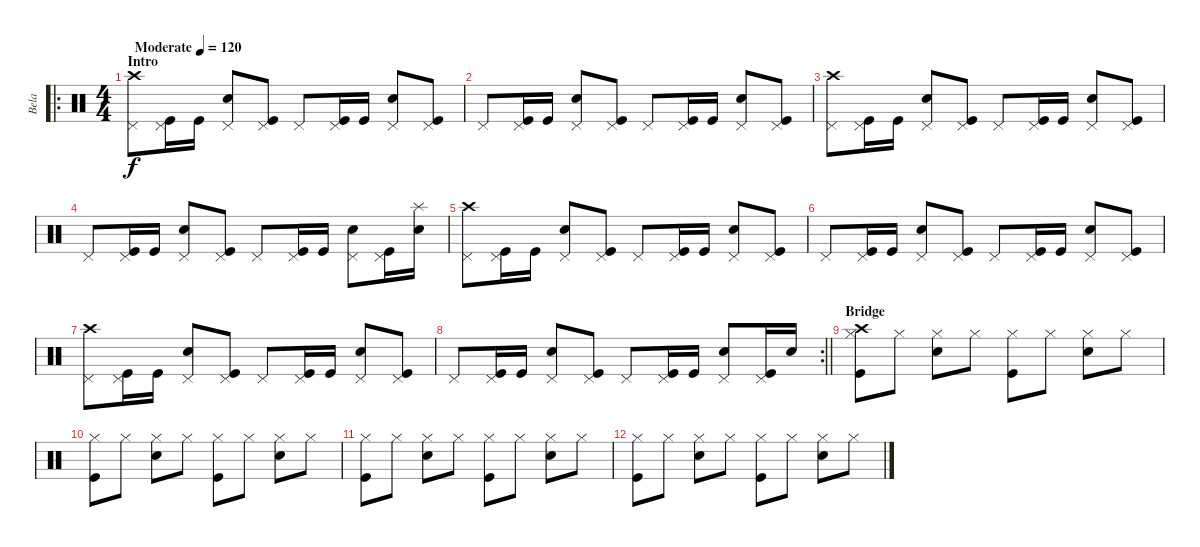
\track ("Bela" "Bela") {instrument percussion}
\staff {score}
\articulation defaults
\ro
\ts (4 4)
\section ("" "Intro")
\tempo (120 "Moderate")
\clef neutral
\ks c
("Crash high (hit)" "Pedal Hi-Hat (hit)").8{dy f} ("Pedal Hi-Hat (hit)" "Kick (hit)").16 "Kick (hit)".16 ("Pedal Hi-Hat (hit)" "Snare (hit) 2").8 ("Pedal Hi-Hat (hit)" "Kick (hit)").8 "Pedal Hi-Hat (hit)".8 ("Pedal Hi-Hat (hit)" "Kick (hit)").16 "Kick (hit)".16 ("Pedal Hi-Hat (hit)" "Snare (hit) 2").8 ("Pedal Hi-Hat (hit)" "Kick (hit)").8 |
"Pedal Hi-Hat (hit)".8 ("Pedal Hi-Hat (hit)" "Kick (hit)").16 "Kick (hit)".16 ("Pedal Hi-Hat (hit)" "Snare (hit) 2").8 ("Pedal Hi-Hat (hit)" "Kick (hit)").8 "Pedal Hi-Hat (hit)".8 ("Pedal Hi-Hat (hit)" "Kick (hit)").16 "Kick (hit)".16 ("Pedal Hi-Hat (hit)" "Snare (hit) 2").8 ("Pedal Hi-Hat (hit)" "Kick (hit)").8 |
("Crash high (hit)" "Pedal Hi-Hat (hit)").8 ("Pedal Hi-Hat (hit)" "Kick (hit)").16 "Kick (hit)".16 ("Pedal Hi-Hat (hit)" "Snare (hit) 2").8 ("Pedal Hi-Hat (hit)" "Kick (hit)").8 "Pedal Hi-Hat (hit)".8 ("Pedal Hi-Hat (hit)" "Kick (hit)").16 "Kick (hit)".16 ("Pedal Hi-Hat (hit)" "Snare (hit) 2").8 ("Pedal Hi-Hat (hit)" "Kick (hit)").8 |
"Pedal Hi-Hat (hit)".8 ("Pedal Hi-Hat (hit)" "Kick (hit)").16 "Kick (hit)".16 ("Pedal Hi-Hat (hit)" "Snare (hit) 2").8 ("Pedal Hi-Hat (hit)" "Kick (hit)").8 "Pedal Hi-Hat (hit)".8 ("Pedal Hi-Hat (hit)" "Kick (hit)").16 "Kick (hit)".16 ("Pedal Hi-Hat (hit)" "Snare (hit) 2").8 ("Pedal Hi-Hat (hit)" "Kick (hit)").16 ("Snare (hit) 2" "Splash (hit)").16 |
("Crash high (hit)" "Pedal Hi-Hat (hit)").8 ("Pedal Hi-Hat (hit)" "Kick (hit)").16 "Kick (hit)".16 ("Pedal Hi-Hat (hit)" "Snare (hit) 2").8 ("Pedal Hi-Hat (hit)" "Kick (hit)").8 "Pedal Hi-Hat (hit)".8 ("Pedal Hi-Hat (hit)" "Kick (hit)").16 "Kick (hit)".16 ("Pedal Hi-Hat (hit)" "Snare (hit) 2").8 ("Pedal Hi-Hat (hit)" "Kick (hit)").8 |
"Pedal Hi-Hat (hit)".8 ("Pedal Hi-Hat (hit)" "Kick (hit)").16 "Kick (hit)".16 ("Pedal Hi-Hat (hit)" "Snare (hit) 2").8 ("Pedal Hi-Hat (hit)" "Kick (hit)").8 "Pedal Hi-Hat (hit)".8 ("Pedal Hi-Hat (hit)" "Kick (hit)").16 "Kick (hit)".16 ("Pedal Hi-Hat (hit)" "Snare (hit) 2").8 ("Pedal Hi-Hat (hit)" "Kick (hit)").8 |
("Crash high (hit)" "Pedal Hi-Hat (hit)").8 ("Pedal Hi-Hat (hit)" "Kick (hit)").16 "Kick (hit)".16 ("Pedal Hi-Hat (hit)" "Snare (hit) 2").8 ("Pedal Hi-Hat (hit)" "Kick (hit)").8 "Pedal Hi-Hat (hit)".8 ("Pedal Hi-Hat (hit)" "Kick (hit)").16 "Kick (hit)".16 ("Pedal Hi-Hat (hit)" "Snare (hit) 2").8 ("Pedal Hi-Hat (hit)" "Kick (hit)").8 |
\rc 2
\barLineRight lightlight "Pedal Hi-Hat (hit)".8
("Pedal Hi-Hat (hit)" "Kick (hit)").16 "Kick (hit)".16 ("Pedal Hi-Hat (hit)" "Snare (hit) 2").8 ("Pedal Hi-Hat (hit)" "Kick (hit)").8 "Pedal Hi-Hat (hit)".8 ("Pedal Hi-Hat (hit)" "Kick (hit)").16 "Kick (hit)".16 ("Pedal Hi-Hat (hit)" "Snare (hit) 2").8 ("Pedal Hi-Hat (hit)" "Kick (hit)").16 "Snare (hit) 2".16 |
\section ("" "Bridge")
("Crash high (hit)" "Hi-Hat (closed)" "Kick (hit)").8 "Hi-Hat (closed)".8 ("Hi-Hat (closed)" "Snare (hit) 2").8 "Hi-Hat (closed)".8 ("Hi-Hat (closed)" "Kick (hit)").8 "Hi-Hat (closed)".8 ("Hi-Hat (closed)" "Snare (hit) 2").8 "Hi-Hat (closed)".8 |
("Hi-Hat (closed)" "Kick (hit)").8 "Hi-Hat (closed)".8 ("Hi-Hat (closed)" "Snare (hit) 2").8 "Hi-Hat (closed)".8 ("Hi-Hat (closed)" "Kick (hit)").8 "Hi-Hat (closed)".8 ("Hi-Hat (closed)" "Snare (hit) 2").8 "Hi-Hat (closed)".8 |
("Hi-Hat (closed)" "Kick (hit)").8 "Hi-Hat (closed)".8 ("Hi-Hat (closed)" "Snare (hit) 2").8 "Hi-Hat (closed)".8 ("Hi-Hat (closed)" "Kick (hit)").8 "Hi-Hat (closed)".8 ("Hi-Hat (closed)" "Snare (hit) 2").8 "Hi-Hat (closed)".8 |
("Hi-Hat (closed)" "Kick (hit)").8 "Hi-Hat (closed)".8 ("Hi-Hat (closed)" "Snare (hit) 2").8 "Hi-Hat (closed)".8 ("Hi-Hat (closed)" "Kick (hit)").8 "Hi-Hat (closed)".8 ("Hi-Hat (closed)" "Snare (hit) 2").8 "Hi-Hat (closed)".8
